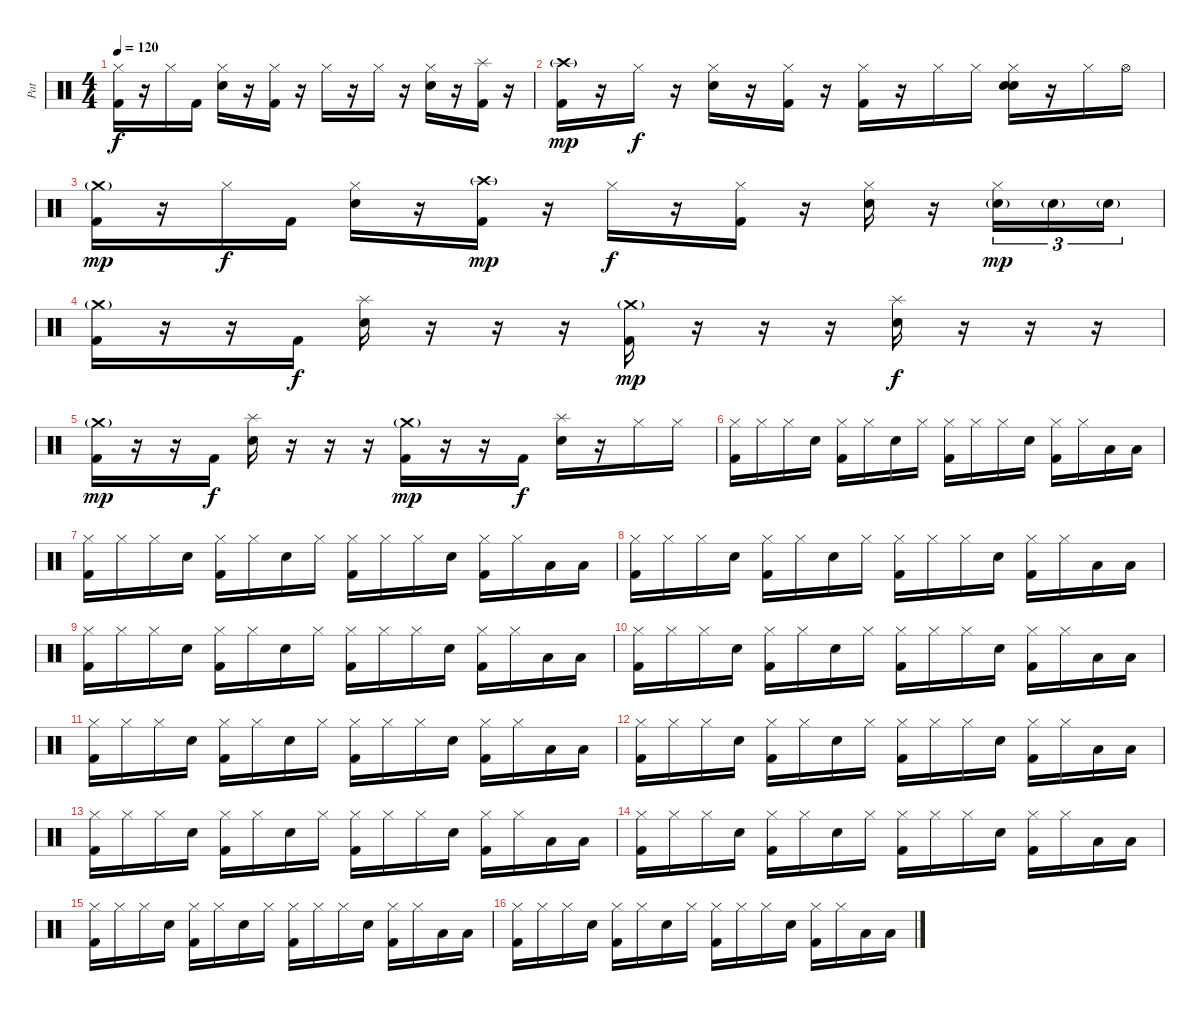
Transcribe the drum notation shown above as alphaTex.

\track ("Pat" "Pat") {instrument percussion}
\staff {score}
\articulation defaults
\ts (4 4)
\tempo 120
\clef neutral
\ks c
("Hi-Hat (closed)" "Kick (hit) 2").16{dy f} r.16 "Hi-Hat (closed)".16 "Kick (hit) 2".16 ("Hi-Hat (closed)" "Electric Snare (hit)").16 r.16 ("Hi-Hat (closed)" "Kick (hit) 2").16 r.16 "Hi-Hat (closed)".16 r.16 "Hi-Hat (closed)".16 r.16 ("Hi-Hat (closed)" "Electric Snare (hit)").16 r.16 ("Splash (hit)" "Kick (hit) 2").16 r.16 |
("Crash high (hit)"{g} "Kick (hit) 2").16{dy mp} r.16 "Hi-Hat (closed)".16{dy f} r.16 ("Hi-Hat (closed)" "Electric Snare (hit)").16 r.16 ("Hi-Hat (closed)" "Kick (hit) 2").16 r.16 ("Hi-Hat (closed)" "Kick (hit) 2").16 r.16 "Hi-Hat (closed)".16 "Hi-Hat (closed)".16 ("Hi-Hat (closed)" "Electric Snare (hit)" "Hand Clap (hit)").16 r.16 "Hi-Hat (closed)".16 "Hi-Hat (open)".16 |
("Crash medium (hit)"{g} "Kick (hit) 2").16{dy mp} r.16 "Hi-Hat (closed)".16{dy f} "Kick (hit) 2".16 ("Hi-Hat (closed)" "Electric Snare (hit)").16 r.16 ("Crash high (hit)"{g} "Kick (hit) 2").16{dy mp} r.16 "Hi-Hat (closed)".16{dy f} r.16 ("Hi-Hat (closed)" "Kick (hit) 2").16 r.16 ("Hi-Hat (closed)" "Electric Snare (hit)").16 r.16 ("Hi-Hat (closed)" "Electric Snare (hit)"{g}).16{tu (3 2) dy mp} "Electric Snare (hit)"{g}.16{tu (3 2)} "Electric Snare (hit)"{g}.16{tu (3 2)} |
("Crash medium (hit)"{g} "Kick (hit) 2").16 r.16 r.16 "Kick (hit) 2".16{dy f} ("Splash (hit)" "Electric Snare (hit)").16 r.16 r.16 r.16 ("Crash medium (hit)"{g} "Kick (hit) 2").16{dy mp} r.16 r.16 r.16 ("Splash (hit)" "Electric Snare (hit)").16{dy f} r.16 r.16 r.16 |
("Crash medium (hit)"{g} "Kick (hit) 2").16{dy mp} r.16 r.16 "Kick (hit) 2".16{dy f} ("Splash (hit)" "Electric Snare (hit)").16 r.16 r.16 r.16 ("Crash medium (hit)"{g} "Kick (hit) 2").16{dy mp} r.16 r.16 "Kick (hit) 2".16{dy f} ("Splash (hit)" "Electric Snare (hit)").16 r.16 "Hi-Hat (closed)".16 "Hi-Hat (closed)".16 |
("Hi-Hat (closed)" "Kick (hit) 2").16 "Hi-Hat (closed)".16 "Hi-Hat (closed)".16 "Electric Snare (hit)".16 ("Hi-Hat (closed)" "Kick (hit) 2").16 "Hi-Hat (closed)".16 "Electric Snare (hit)".16 "Hi-Hat (closed)".16 ("Hi-Hat (closed)" "Kick (hit) 2").16 "Hi-Hat (closed)".16 "Hi-Hat (closed)".16 "Electric Snare (hit)".16 ("Hi-Hat (closed)" "Kick (hit) 2").16 "Hi-Hat (closed)".16 "Low Tom (hit)".16 "Low Tom (hit)".16 |
("Hi-Hat (closed)" "Kick (hit) 2").16 "Hi-Hat (closed)".16 "Hi-Hat (closed)".16 "Electric Snare (hit)".16 ("Hi-Hat (closed)" "Kick (hit) 2").16 "Hi-Hat (closed)".16 "Electric Snare (hit)".16 "Hi-Hat (closed)".16 ("Hi-Hat (closed)" "Kick (hit) 2").16 "Hi-Hat (closed)".16 "Hi-Hat (closed)".16 "Electric Snare (hit)".16 ("Hi-Hat (closed)" "Kick (hit) 2").16 "Hi-Hat (closed)".16 "Low Tom (hit)".16 "Low Tom (hit)".16 |
("Hi-Hat (closed)" "Kick (hit) 2").16 "Hi-Hat (closed)".16 "Hi-Hat (closed)".16 "Electric Snare (hit)".16 ("Hi-Hat (closed)" "Kick (hit) 2").16 "Hi-Hat (closed)".16 "Electric Snare (hit)".16 "Hi-Hat (closed)".16 ("Hi-Hat (closed)" "Kick (hit) 2").16 "Hi-Hat (closed)".16 "Hi-Hat (closed)".16 "Electric Snare (hit)".16 ("Hi-Hat (closed)" "Kick (hit) 2").16 "Hi-Hat (closed)".16 "Low Tom (hit)".16 "Low Tom (hit)".16 |
("Hi-Hat (closed)" "Kick (hit) 2").16 "Hi-Hat (closed)".16 "Hi-Hat (closed)".16 "Electric Snare (hit)".16 ("Hi-Hat (closed)" "Kick (hit) 2").16 "Hi-Hat (closed)".16 "Electric Snare (hit)".16 "Hi-Hat (closed)".16 ("Hi-Hat (closed)" "Kick (hit) 2").16 "Hi-Hat (closed)".16 "Hi-Hat (closed)".16 "Electric Snare (hit)".16 ("Hi-Hat (closed)" "Kick (hit) 2").16 "Hi-Hat (closed)".16 "Low Tom (hit)".16 "Low Tom (hit)".16 |
("Hi-Hat (closed)" "Kick (hit) 2").16 "Hi-Hat (closed)".16 "Hi-Hat (closed)".16 "Electric Snare (hit)".16 ("Hi-Hat (closed)" "Kick (hit) 2").16 "Hi-Hat (closed)".16 "Electric Snare (hit)".16 "Hi-Hat (closed)".16 ("Hi-Hat (closed)" "Kick (hit) 2").16 "Hi-Hat (closed)".16 "Hi-Hat (closed)".16 "Electric Snare (hit)".16 ("Hi-Hat (closed)" "Kick (hit) 2").16 "Hi-Hat (closed)".16 "Low Tom (hit)".16 "Low Tom (hit)".16 |
("Hi-Hat (closed)" "Kick (hit) 2").16 "Hi-Hat (closed)".16 "Hi-Hat (closed)".16 "Electric Snare (hit)".16 ("Hi-Hat (closed)" "Kick (hit) 2").16 "Hi-Hat (closed)".16 "Electric Snare (hit)".16 "Hi-Hat (closed)".16 ("Hi-Hat (closed)" "Kick (hit) 2").16 "Hi-Hat (closed)".16 "Hi-Hat (closed)".16 "Electric Snare (hit)".16 ("Hi-Hat (closed)" "Kick (hit) 2").16 "Hi-Hat (closed)".16 "Low Tom (hit)".16 "Low Tom (hit)".16 |
("Hi-Hat (closed)" "Kick (hit) 2").16 "Hi-Hat (closed)".16 "Hi-Hat (closed)".16 "Electric Snare (hit)".16 ("Hi-Hat (closed)" "Kick (hit) 2").16 "Hi-Hat (closed)".16 "Electric Snare (hit)".16 "Hi-Hat (closed)".16 ("Hi-Hat (closed)" "Kick (hit) 2").16 "Hi-Hat (closed)".16 "Hi-Hat (closed)".16 "Electric Snare (hit)".16 ("Hi-Hat (closed)" "Kick (hit) 2").16 "Hi-Hat (closed)".16 "Low Tom (hit)".16 "Low Tom (hit)".16 |
("Hi-Hat (closed)" "Kick (hit) 2").16 "Hi-Hat (closed)".16 "Hi-Hat (closed)".16 "Electric Snare (hit)".16 ("Hi-Hat (closed)" "Kick (hit) 2").16 "Hi-Hat (closed)".16 "Electric Snare (hit)".16 "Hi-Hat (closed)".16 ("Hi-Hat (closed)" "Kick (hit) 2").16 "Hi-Hat (closed)".16 "Hi-Hat (closed)".16 "Electric Snare (hit)".16 ("Hi-Hat (closed)" "Kick (hit) 2").16 "Hi-Hat (closed)".16 "Low Tom (hit)".16 "Low Tom (hit)".16 |
("Hi-Hat (closed)" "Kick (hit) 2").16 "Hi-Hat (closed)".16 "Hi-Hat (closed)".16 "Electric Snare (hit)".16 ("Hi-Hat (closed)" "Kick (hit) 2").16 "Hi-Hat (closed)".16 "Electric Snare (hit)".16 "Hi-Hat (closed)".16 ("Hi-Hat (closed)" "Kick (hit) 2").16 "Hi-Hat (closed)".16 "Hi-Hat (closed)".16 "Electric Snare (hit)".16 ("Hi-Hat (closed)" "Kick (hit) 2").16 "Hi-Hat (closed)".16 "Low Tom (hit)".16 "Low Tom (hit)".16 |
("Hi-Hat (closed)" "Kick (hit) 2").16 "Hi-Hat (closed)".16 "Hi-Hat (closed)".16 "Electric Snare (hit)".16 ("Hi-Hat (closed)" "Kick (hit) 2").16 "Hi-Hat (closed)".16 "Electric Snare (hit)".16 "Hi-Hat (closed)".16 ("Hi-Hat (closed)" "Kick (hit) 2").16 "Hi-Hat (closed)".16 "Hi-Hat (closed)".16 "Electric Snare (hit)".16 ("Hi-Hat (closed)" "Kick (hit) 2").16 "Hi-Hat (closed)".16 "Low Tom (hit)".16 "Low Tom (hit)".16 |
("Hi-Hat (closed)" "Kick (hit) 2").16 "Hi-Hat (closed)".16 "Hi-Hat (closed)".16 "Electric Snare (hit)".16 ("Hi-Hat (closed)" "Kick (hit) 2").16 "Hi-Hat (closed)".16 "Electric Snare (hit)".16 "Hi-Hat (closed)".16 ("Hi-Hat (closed)" "Kick (hit) 2").16 "Hi-Hat (closed)".16 "Hi-Hat (closed)".16 "Electric Snare (hit)".16 ("Hi-Hat (closed)" "Kick (hit) 2").16 "Hi-Hat (closed)".16 "Low Tom (hit)".16 "Low Tom (hit)".16
